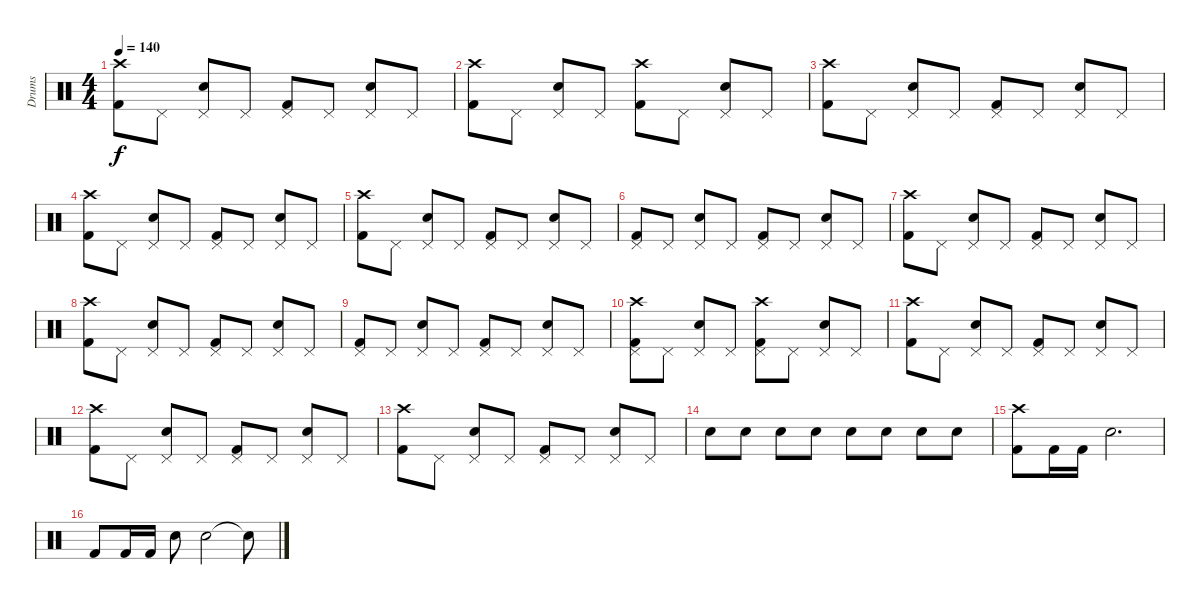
\track ("Drums" "Drums") {instrument percussion}
\staff {score}
\articulation defaults
\ts (4 4)
\tempo 140
\clef neutral
\ks c
("Crash high (hit)" "Kick (hit) 2").8{dy f} "Pedal Hi-Hat (hit)".8 ("Pedal Hi-Hat (hit)" "Snare (hit) 2").8 "Pedal Hi-Hat (hit)".8 ("Pedal Hi-Hat (hit)" "Kick (hit) 2").8 "Pedal Hi-Hat (hit)".8 ("Pedal Hi-Hat (hit)" "Snare (hit) 2").8 "Pedal Hi-Hat (hit)".8 |
("Crash high (hit)" "Kick (hit) 2").8 "Pedal Hi-Hat (hit)".8 ("Pedal Hi-Hat (hit)" "Snare (hit) 2").8 "Pedal Hi-Hat (hit)".8 ("Crash high (hit)" "Kick (hit) 2").8 "Pedal Hi-Hat (hit)".8 ("Pedal Hi-Hat (hit)" "Snare (hit) 2").8 "Pedal Hi-Hat (hit)".8 |
("Crash high (hit)" "Kick (hit) 2").8 "Pedal Hi-Hat (hit)".8 ("Pedal Hi-Hat (hit)" "Snare (hit) 2").8 "Pedal Hi-Hat (hit)".8 ("Pedal Hi-Hat (hit)" "Kick (hit) 2").8 "Pedal Hi-Hat (hit)".8 ("Pedal Hi-Hat (hit)" "Snare (hit) 2").8 "Pedal Hi-Hat (hit)".8 |
("Crash high (hit)" "Kick (hit) 2").8 "Pedal Hi-Hat (hit)".8 ("Pedal Hi-Hat (hit)" "Snare (hit) 2").8 "Pedal Hi-Hat (hit)".8 ("Pedal Hi-Hat (hit)" "Kick (hit) 2").8 "Pedal Hi-Hat (hit)".8 ("Pedal Hi-Hat (hit)" "Snare (hit) 2").8 "Pedal Hi-Hat (hit)".8 |
("Crash high (hit)" "Kick (hit) 2").8 "Pedal Hi-Hat (hit)".8 ("Pedal Hi-Hat (hit)" "Snare (hit) 2").8 "Pedal Hi-Hat (hit)".8 ("Pedal Hi-Hat (hit)" "Kick (hit) 2").8 "Pedal Hi-Hat (hit)".8 ("Pedal Hi-Hat (hit)" "Snare (hit) 2").8 "Pedal Hi-Hat (hit)".8 |
("Pedal Hi-Hat (hit)" "Kick (hit) 2").8 "Pedal Hi-Hat (hit)".8 ("Pedal Hi-Hat (hit)" "Snare (hit) 2").8 "Pedal Hi-Hat (hit)".8 ("Pedal Hi-Hat (hit)" "Kick (hit) 2").8 "Pedal Hi-Hat (hit)".8 ("Pedal Hi-Hat (hit)" "Snare (hit) 2").8 "Pedal Hi-Hat (hit)".8 |
("Crash high (hit)" "Kick (hit) 2").8 "Pedal Hi-Hat (hit)".8 ("Pedal Hi-Hat (hit)" "Snare (hit) 2").8 "Pedal Hi-Hat (hit)".8 ("Pedal Hi-Hat (hit)" "Kick (hit) 2").8 "Pedal Hi-Hat (hit)".8 ("Pedal Hi-Hat (hit)" "Snare (hit) 2").8 "Pedal Hi-Hat (hit)".8 |
("Crash high (hit)" "Kick (hit) 2").8 "Pedal Hi-Hat (hit)".8 ("Pedal Hi-Hat (hit)" "Snare (hit) 2").8 "Pedal Hi-Hat (hit)".8 ("Pedal Hi-Hat (hit)" "Kick (hit) 2").8 "Pedal Hi-Hat (hit)".8 ("Pedal Hi-Hat (hit)" "Snare (hit) 2").8 "Pedal Hi-Hat (hit)".8 |
("Pedal Hi-Hat (hit)" "Kick (hit) 2").8 "Pedal Hi-Hat (hit)".8 ("Pedal Hi-Hat (hit)" "Snare (hit) 2").8 "Pedal Hi-Hat (hit)".8 ("Pedal Hi-Hat (hit)" "Kick (hit) 2").8 "Pedal Hi-Hat (hit)".8 ("Pedal Hi-Hat (hit)" "Snare (hit) 2").8 "Pedal Hi-Hat (hit)".8 |
("Pedal Hi-Hat (hit)" "Crash high (hit)" "Kick (hit) 2").8 "Pedal Hi-Hat (hit)".8 ("Pedal Hi-Hat (hit)" "Snare (hit) 2").8 "Pedal Hi-Hat (hit)".8 ("Pedal Hi-Hat (hit)" "Crash high (hit)" "Kick (hit) 2").8 "Pedal Hi-Hat (hit)".8 ("Pedal Hi-Hat (hit)" "Snare (hit) 2").8 "Pedal Hi-Hat (hit)".8 |
("Crash high (hit)" "Kick (hit) 2").8 "Pedal Hi-Hat (hit)".8 ("Pedal Hi-Hat (hit)" "Snare (hit) 2").8 "Pedal Hi-Hat (hit)".8 ("Pedal Hi-Hat (hit)" "Kick (hit) 2").8 "Pedal Hi-Hat (hit)".8 ("Pedal Hi-Hat (hit)" "Snare (hit) 2").8 "Pedal Hi-Hat (hit)".8 |
("Crash high (hit)" "Kick (hit) 2").8 "Pedal Hi-Hat (hit)".8 ("Pedal Hi-Hat (hit)" "Snare (hit) 2").8 "Pedal Hi-Hat (hit)".8 ("Pedal Hi-Hat (hit)" "Kick (hit) 2").8 "Pedal Hi-Hat (hit)".8 ("Pedal Hi-Hat (hit)" "Snare (hit) 2").8 "Pedal Hi-Hat (hit)".8 |
("Crash high (hit)" "Kick (hit) 2").8 "Pedal Hi-Hat (hit)".8 ("Pedal Hi-Hat (hit)" "Snare (hit) 2").8 "Pedal Hi-Hat (hit)".8 ("Pedal Hi-Hat (hit)" "Kick (hit) 2").8 "Pedal Hi-Hat (hit)".8 ("Pedal Hi-Hat (hit)" "Snare (hit) 2").8 "Pedal Hi-Hat (hit)".8 |
"Snare (hit) 2".8 "Snare (hit) 2".8 "Snare (hit) 2".8 "Snare (hit) 2".8 "Snare (hit) 2".8 "Snare (hit) 2".8 "Snare (hit) 2".8 "Snare (hit) 2".8 |
("Kick (hit) 2" "Crash high (hit)").8 "Kick (hit) 2".16 "Kick (hit) 2".16 "Snare (hit) 2".2{d} |
"Kick (hit) 2".8 "Kick (hit) 2".16 "Kick (hit) 2".16 "Electric Snare (hit)".8 "Snare (hit) 2".2 "Snare (hit)"{t}.8
